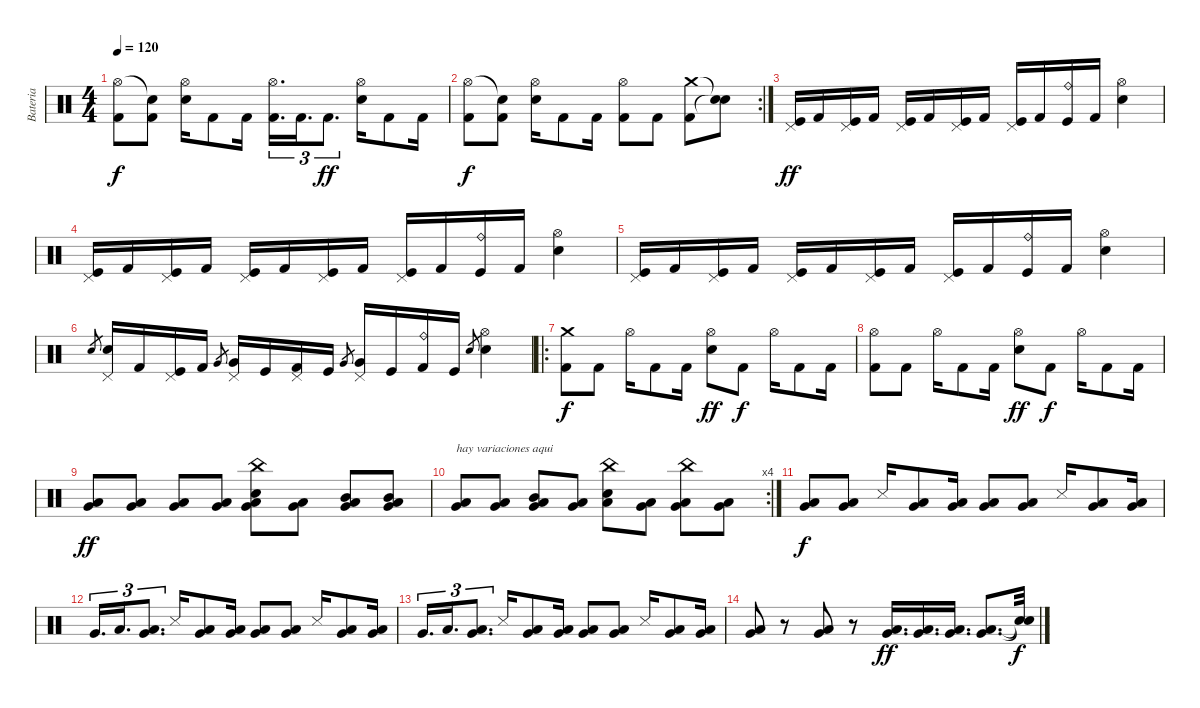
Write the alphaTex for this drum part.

\track ("Bateria" "Bateria") {instrument percussion}
\staff {score}
\articulation defaults
\ts (4 4)
\tempo 120
\clef neutral
\ks c
("Hi-Hat (open)" "Kick (hit) 2").8{dy f} ("Snare (hit)"{t} "Kick (hit) 2").8 ("Hi-Hat (open)" "Electric Snare (hit)").16 "Kick (hit) 2".8 "Kick (hit) 2".16 ("Hi-Hat (open)" "Kick (hit) 2").16{d tu (3 2)} "Kick (hit) 2".16{d tu (3 2)} "Kick (hit) 2".8{d tu (3 2) dy ff} ("Hi-Hat (open)" "Electric Snare (hit)").16 "Kick (hit) 2".8 "Kick (hit) 2".16 |
\rc 2
("Hi-Hat (open)" "Kick (hit) 2").8{dy f} ("Snare (hit)"{t} "Kick (hit) 2").8 ("Hi-Hat (open)" "Electric Snare (hit)").16 "Kick (hit) 2".8 "Kick (hit) 2".16 ("Hi-Hat (open)" "Kick (hit) 2").8 "Kick (hit) 2".8 ("Crash medium (hit)" "Kick (hit) 2").8 ("Snare (hit)"{t} "Snare (hit)"{t}).8 |
("Pedal Hi-Hat (hit)" "Kick (hit)").16{dy ff} "Kick (hit) 2".16 ("Pedal Hi-Hat (hit)" "Kick (hit)").16 "Kick (hit) 2".16 ("Pedal Hi-Hat (hit)" "Kick (hit)").16 "Kick (hit) 2".16 ("Pedal Hi-Hat (hit)" "Kick (hit)").16 "Kick (hit) 2".16 ("Pedal Hi-Hat (hit)" "Kick (hit)").16 "Kick (hit) 2".16 ("Ride (bell)" "Kick (hit)").16 "Kick (hit) 2".16 ("Hi-Hat (open)" "Electric Snare (hit)").4 |
("Pedal Hi-Hat (hit)" "Kick (hit)").16 "Kick (hit) 2".16 ("Pedal Hi-Hat (hit)" "Kick (hit)").16 "Kick (hit) 2".16 ("Pedal Hi-Hat (hit)" "Kick (hit)").16 "Kick (hit) 2".16 ("Pedal Hi-Hat (hit)" "Kick (hit)").16 "Kick (hit) 2".16 ("Pedal Hi-Hat (hit)" "Kick (hit)").16 "Kick (hit) 2".16 ("Ride (bell)" "Kick (hit)").16 "Kick (hit) 2".16 ("Hi-Hat (open)" "Electric Snare (hit)").4 |
("Pedal Hi-Hat (hit)" "Kick (hit)").16 "Kick (hit) 2".16 ("Pedal Hi-Hat (hit)" "Kick (hit)").16 "Kick (hit) 2".16 ("Pedal Hi-Hat (hit)" "Kick (hit)").16 "Kick (hit) 2".16 ("Pedal Hi-Hat (hit)" "Kick (hit)").16 "Kick (hit) 2".16 ("Pedal Hi-Hat (hit)" "Kick (hit)").16 "Kick (hit) 2".16 ("Ride (bell)" "Kick (hit)").16 "Kick (hit) 2".16 ("Hi-Hat (open)" "Electric Snare (hit)").4 |
"Electric Snare (hit)".8{gr} ("Pedal Hi-Hat (hit)" "Electric Snare (hit)").16 "Kick (hit) 2".16 ("Pedal Hi-Hat (hit)" "Kick (hit)").16 "Kick (hit) 2".16 "Very Low Tom (hit)".8{gr} ("Pedal Hi-Hat (hit)" "Very Low Tom (hit)").16 "Kick (hit)".16 ("Pedal Hi-Hat (hit)" "Kick (hit) 2").16 "Kick (hit)".16 "Very Low Tom (hit)".8{gr} ("Pedal Hi-Hat (hit)" "Very Low Tom (hit)").16 "Kick (hit)".16 ("Ride (bell)" "Kick (hit) 2").16 "Kick (hit)".16 "Electric Snare (hit)".8{gr} ("Hi-Hat (open)" "Electric Snare (hit)").4 |
\ro
("Crash medium (hit)" "Kick (hit) 2").8{dy f} "Kick (hit) 2".8 "Hi-Hat (open)".16 "Kick (hit) 2".8 "Kick (hit) 2".16 ("Hi-Hat (open)" "Electric Snare (hit)").8{dy ff} "Kick (hit) 2".8{dy f} "Hi-Hat (open)".16 "Kick (hit) 2".8 "Kick (hit) 2".16 |
("Hi-Hat (open)" "Kick (hit) 2").8 "Kick (hit) 2".8 "Hi-Hat (open)".16 "Kick (hit) 2".8 "Kick (hit) 2".16 ("Hi-Hat (open)" "Electric Snare (hit)").8{dy ff} "Kick (hit) 2".8{dy f} "Hi-Hat (open)".16 "Kick (hit) 2".8 "Kick (hit) 2".16 |
("Very Low Tom (hit)" "Low Tom (hit)").8{dy ff} ("Very Low Tom (hit)" "Low Tom (hit)").8 ("Very Low Tom (hit)" "Low Tom (hit)").8 ("Very Low Tom (hit)" "Low Tom (hit)").8 ("China (hit)" "Electric Snare (hit)" "Very Low Tom (hit)" "Low Tom (hit)").8 ("Very Low Tom (hit)" "Low Tom (hit)").8 ("Mid Tom (hit)" "Very Low Tom (hit)" "Low Tom (hit)").8 ("Mid Tom (hit)" "Very Low Tom (hit)" "Low Tom (hit)").8 |
\rc 4
("Very Low Tom (hit)" "Low Tom (hit)").8{txt "hay variaciones aqui"} ("Very Low Tom (hit)" "Low Tom (hit)").8 ("Mid Tom (hit)" "Very Low Tom (hit)" "Low Tom (hit)").8 ("Very Low Tom (hit)" "Low Tom (hit)").8 ("China (hit)" "Electric Snare (hit)" "Low Tom (hit)").8 ("Very Low Tom (hit)" "Low Tom (hit)").8 ("China (hit)" "Very Low Tom (hit)" "Low Tom (hit)").8 ("Very Low Tom (hit)" "Low Tom (hit)").8 |
("Very Low Tom (hit)" "Low Floor Tom (hit)").8{dy f} ("Very Low Tom (hit)" "Low Floor Tom (hit)").8 "Snare (side stick) 3".16 ("Very Low Tom (hit)" "Low Floor Tom (hit)").8 ("Very Low Tom (hit)" "Low Floor Tom (hit)").16 ("Very Low Tom (hit)" "Low Floor Tom (hit)").8 ("Very Low Tom (hit)" "Low Floor Tom (hit)").8 "Snare (side stick) 3".16 ("Very Low Tom (hit)" "Low Floor Tom (hit)").8 ("Very Low Tom (hit)" "Low Floor Tom (hit)").16 |
"Very Low Tom (hit)".16{d tu (3 2)} "Low Tom (hit)".16{d tu (3 2)} ("Low Tom (hit)" "Very Low Tom (hit)").8{d tu (3 2)} "Snare (side stick) 3".16 ("Very Low Tom (hit)" "Low Tom (hit)").8 ("Very Low Tom (hit)" "Low Tom (hit)").16 ("Very Low Tom (hit)" "Low Floor Tom (hit)").8 ("Very Low Tom (hit)" "Low Floor Tom (hit)").8 "Snare (side stick) 3".16 ("Very Low Tom (hit)" "Low Floor Tom (hit)").8 ("Very Low Tom (hit)" "Low Floor Tom (hit)").16 |
"Very Low Tom (hit)".16{d tu (3 2)} "Low Tom (hit)".16{d tu (3 2)} ("Low Tom (hit)" "Very Low Tom (hit)").8{d tu (3 2)} "Snare (side stick) 3".16 ("Very Low Tom (hit)" "Low Tom (hit)").8 ("Very Low Tom (hit)" "Low Tom (hit)").16 ("Very Low Tom (hit)" "Low Floor Tom (hit)").8 ("Very Low Tom (hit)" "Low Floor Tom (hit)").8 "Snare (side stick) 3".16 ("Very Low Tom (hit)" "Low Floor Tom (hit)").8 ("Very Low Tom (hit)" "Low Floor Tom (hit)").16 |
("Very Low Tom (hit)" "Low Floor Tom (hit)").8 r.8 ("Very Low Tom (hit)" "Low Floor Tom (hit)").8 r.8 ("Very Low Tom (hit)" "Low Tom (hit)").16{d dy ff} ("Very Low Tom (hit)" "Low Tom (hit)").16{d} ("Very Low Tom (hit)" "Low Floor Tom (hit)").16{d} ("Very Low Tom (hit)" "Low Floor Tom (hit)").8{d} ("Snare (hit)"{t} "Snare (hit)"{t}).32{dy f}
